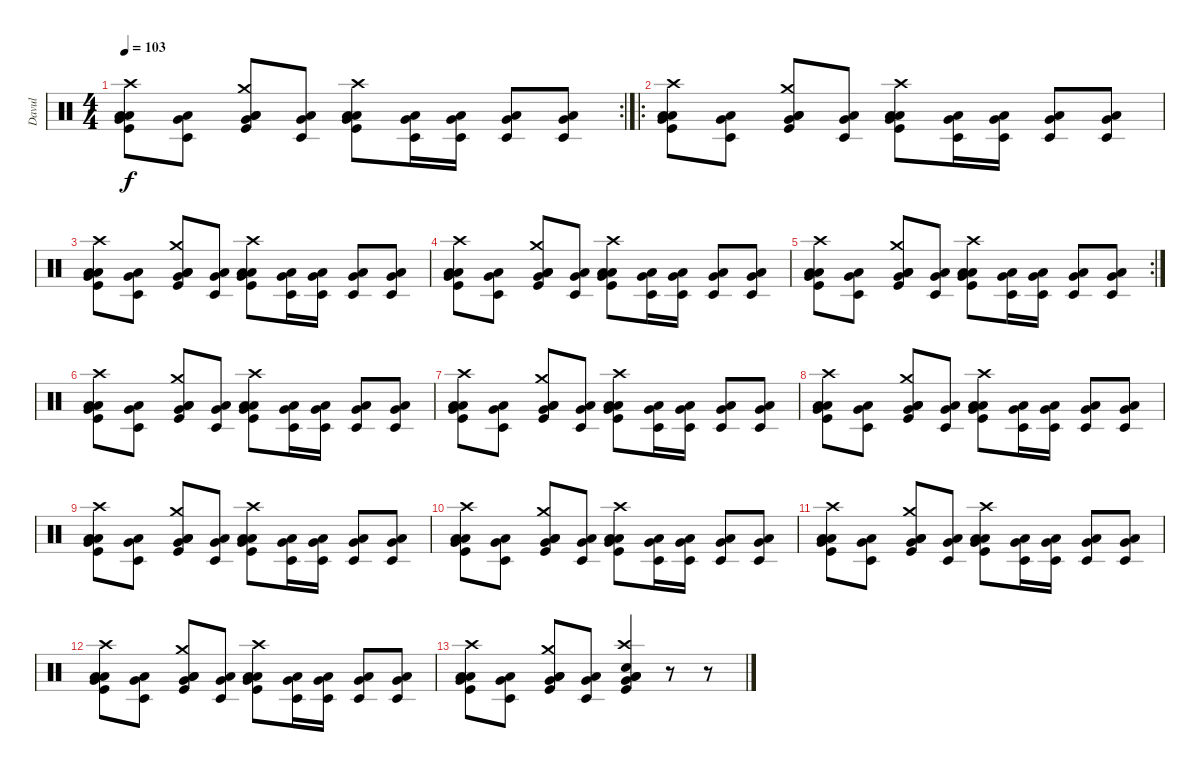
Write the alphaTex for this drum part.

\track ("Davul" "Davul") {instrument percussion}
\staff {score}
\articulation defaults
\rc 2
\ts (4 4)
\tempo 103
\clef neutral
\ks c
("Kick (hit)" "Low Tom (hit)" "Low Floor Tom (hit)" "Very Low Tom (hit)" "Crash high (hit)").8{dy f} ("Low Floor Tom (hit)" "Timbale low (hit)" "Very Low Tom (hit)").8 ("Kick (hit)" "Low Tom (hit)" "Low Floor Tom (hit)" "Very Low Tom (hit)" "Crash medium (hit)").8 ("Low Floor Tom (hit)" "Timbale low (hit)" "Very Low Tom (hit)").8 ("Kick (hit)" "Low Tom (hit)" "Low Floor Tom (hit)" "Very Low Tom (hit)" "Crash high (hit)").8 ("Low Floor Tom (hit)" "Timbale low (hit)" "Very Low Tom (hit)").16 ("Low Floor Tom (hit)" "Timbale low (hit)" "Very Low Tom (hit)").16 ("Low Floor Tom (hit)" "Timbale low (hit)" "Very Low Tom (hit)").8 ("Low Floor Tom (hit)" "Timbale low (hit)" "Very Low Tom (hit)").8 |
\ro
("Kick (hit)" "Low Tom (hit)" "Low Floor Tom (hit)" "Very Low Tom (hit)" "Crash high (hit)").8 ("Low Floor Tom (hit)" "Timbale low (hit)" "Very Low Tom (hit)").8 ("Kick (hit)" "Low Tom (hit)" "Low Floor Tom (hit)" "Very Low Tom (hit)" "Crash medium (hit)").8 ("Low Floor Tom (hit)" "Timbale low (hit)" "Very Low Tom (hit)").8 ("Kick (hit)" "Low Tom (hit)" "Low Floor Tom (hit)" "Very Low Tom (hit)" "Crash high (hit)").8 ("Low Floor Tom (hit)" "Timbale low (hit)" "Very Low Tom (hit)").16 ("Low Floor Tom (hit)" "Timbale low (hit)" "Very Low Tom (hit)").16 ("Low Floor Tom (hit)" "Timbale low (hit)" "Very Low Tom (hit)").8 ("Low Floor Tom (hit)" "Timbale low (hit)" "Very Low Tom (hit)").8 |
("Kick (hit)" "Low Tom (hit)" "Low Floor Tom (hit)" "Very Low Tom (hit)" "Crash high (hit)").8 ("Low Floor Tom (hit)" "Timbale low (hit)" "Very Low Tom (hit)").8 ("Kick (hit)" "Low Tom (hit)" "Low Floor Tom (hit)" "Very Low Tom (hit)" "Crash medium (hit)").8 ("Low Floor Tom (hit)" "Timbale low (hit)" "Very Low Tom (hit)").8 ("Kick (hit)" "Low Tom (hit)" "Low Floor Tom (hit)" "Very Low Tom (hit)" "Crash high (hit)").8 ("Low Floor Tom (hit)" "Timbale low (hit)" "Very Low Tom (hit)").16 ("Low Floor Tom (hit)" "Timbale low (hit)" "Very Low Tom (hit)").16 ("Low Floor Tom (hit)" "Timbale low (hit)" "Very Low Tom (hit)").8 ("Low Floor Tom (hit)" "Timbale low (hit)" "Very Low Tom (hit)").8 |
("Kick (hit)" "Low Tom (hit)" "Low Floor Tom (hit)" "Very Low Tom (hit)" "Crash high (hit)").8 ("Low Floor Tom (hit)" "Timbale low (hit)" "Very Low Tom (hit)").8 ("Kick (hit)" "Low Tom (hit)" "Low Floor Tom (hit)" "Very Low Tom (hit)" "Crash medium (hit)").8 ("Low Floor Tom (hit)" "Timbale low (hit)" "Very Low Tom (hit)").8 ("Kick (hit)" "Low Tom (hit)" "Low Floor Tom (hit)" "Very Low Tom (hit)" "Crash high (hit)").8 ("Low Floor Tom (hit)" "Timbale low (hit)" "Very Low Tom (hit)").16 ("Low Floor Tom (hit)" "Timbale low (hit)" "Very Low Tom (hit)").16 ("Low Floor Tom (hit)" "Timbale low (hit)" "Very Low Tom (hit)").8 ("Low Floor Tom (hit)" "Timbale low (hit)" "Very Low Tom (hit)").8 |
\rc 2
("Kick (hit)" "Low Tom (hit)" "Low Floor Tom (hit)" "Very Low Tom (hit)" "Crash high (hit)").8 ("Low Floor Tom (hit)" "Timbale low (hit)" "Very Low Tom (hit)").8 ("Kick (hit)" "Low Tom (hit)" "Low Floor Tom (hit)" "Very Low Tom (hit)" "Crash medium (hit)").8 ("Low Floor Tom (hit)" "Timbale low (hit)" "Very Low Tom (hit)").8 ("Kick (hit)" "Low Tom (hit)" "Low Floor Tom (hit)" "Very Low Tom (hit)" "Crash high (hit)").8 ("Low Floor Tom (hit)" "Timbale low (hit)" "Very Low Tom (hit)").16 ("Low Floor Tom (hit)" "Timbale low (hit)" "Very Low Tom (hit)").16 ("Low Floor Tom (hit)" "Timbale low (hit)" "Very Low Tom (hit)").8 ("Low Floor Tom (hit)" "Timbale low (hit)" "Very Low Tom (hit)").8 |
("Kick (hit)" "Low Tom (hit)" "Low Floor Tom (hit)" "Very Low Tom (hit)" "Crash high (hit)").8 ("Low Floor Tom (hit)" "Timbale low (hit)" "Very Low Tom (hit)").8 ("Kick (hit)" "Low Tom (hit)" "Low Floor Tom (hit)" "Very Low Tom (hit)" "Crash medium (hit)").8 ("Low Floor Tom (hit)" "Timbale low (hit)" "Very Low Tom (hit)").8 ("Kick (hit)" "Low Tom (hit)" "Low Floor Tom (hit)" "Very Low Tom (hit)" "Crash high (hit)").8 ("Low Floor Tom (hit)" "Timbale low (hit)" "Very Low Tom (hit)").16 ("Low Floor Tom (hit)" "Timbale low (hit)" "Very Low Tom (hit)").16 ("Low Floor Tom (hit)" "Timbale low (hit)" "Very Low Tom (hit)").8 ("Low Floor Tom (hit)" "Timbale low (hit)" "Very Low Tom (hit)").8 |
("Kick (hit)" "Low Tom (hit)" "Low Floor Tom (hit)" "Very Low Tom (hit)" "Crash high (hit)").8 ("Low Floor Tom (hit)" "Timbale low (hit)" "Very Low Tom (hit)").8 ("Kick (hit)" "Low Tom (hit)" "Low Floor Tom (hit)" "Very Low Tom (hit)" "Crash medium (hit)").8 ("Low Floor Tom (hit)" "Timbale low (hit)" "Very Low Tom (hit)").8 ("Kick (hit)" "Low Tom (hit)" "Low Floor Tom (hit)" "Very Low Tom (hit)" "Crash high (hit)").8 ("Low Floor Tom (hit)" "Timbale low (hit)" "Very Low Tom (hit)").16 ("Low Floor Tom (hit)" "Timbale low (hit)" "Very Low Tom (hit)").16 ("Low Floor Tom (hit)" "Timbale low (hit)" "Very Low Tom (hit)").8 ("Low Floor Tom (hit)" "Timbale low (hit)" "Very Low Tom (hit)").8 |
("Kick (hit)" "Low Tom (hit)" "Low Floor Tom (hit)" "Very Low Tom (hit)" "Crash high (hit)").8 ("Low Floor Tom (hit)" "Timbale low (hit)" "Very Low Tom (hit)").8 ("Kick (hit)" "Low Tom (hit)" "Low Floor Tom (hit)" "Very Low Tom (hit)" "Crash medium (hit)").8 ("Low Floor Tom (hit)" "Timbale low (hit)" "Very Low Tom (hit)").8 ("Kick (hit)" "Low Tom (hit)" "Low Floor Tom (hit)" "Very Low Tom (hit)" "Crash high (hit)").8 ("Low Floor Tom (hit)" "Timbale low (hit)" "Very Low Tom (hit)").16 ("Low Floor Tom (hit)" "Timbale low (hit)" "Very Low Tom (hit)").16 ("Low Floor Tom (hit)" "Timbale low (hit)" "Very Low Tom (hit)").8 ("Low Floor Tom (hit)" "Timbale low (hit)" "Very Low Tom (hit)").8 |
("Kick (hit)" "Low Tom (hit)" "Low Floor Tom (hit)" "Very Low Tom (hit)" "Crash high (hit)").8 ("Low Floor Tom (hit)" "Timbale low (hit)" "Very Low Tom (hit)").8 ("Kick (hit)" "Low Tom (hit)" "Low Floor Tom (hit)" "Very Low Tom (hit)" "Crash medium (hit)").8 ("Low Floor Tom (hit)" "Timbale low (hit)" "Very Low Tom (hit)").8 ("Kick (hit)" "Low Tom (hit)" "Low Floor Tom (hit)" "Very Low Tom (hit)" "Crash high (hit)").8 ("Low Floor Tom (hit)" "Timbale low (hit)" "Very Low Tom (hit)").16 ("Low Floor Tom (hit)" "Timbale low (hit)" "Very Low Tom (hit)").16 ("Low Floor Tom (hit)" "Timbale low (hit)" "Very Low Tom (hit)").8 ("Low Floor Tom (hit)" "Timbale low (hit)" "Very Low Tom (hit)").8 |
("Kick (hit)" "Low Tom (hit)" "Low Floor Tom (hit)" "Very Low Tom (hit)" "Crash high (hit)").8 ("Low Floor Tom (hit)" "Timbale low (hit)" "Very Low Tom (hit)").8 ("Kick (hit)" "Low Tom (hit)" "Low Floor Tom (hit)" "Very Low Tom (hit)" "Crash medium (hit)").8 ("Low Floor Tom (hit)" "Timbale low (hit)" "Very Low Tom (hit)").8 ("Kick (hit)" "Low Tom (hit)" "Low Floor Tom (hit)" "Very Low Tom (hit)" "Crash high (hit)").8 ("Low Floor Tom (hit)" "Timbale low (hit)" "Very Low Tom (hit)").16 ("Low Floor Tom (hit)" "Timbale low (hit)" "Very Low Tom (hit)").16 ("Low Floor Tom (hit)" "Timbale low (hit)" "Very Low Tom (hit)").8 ("Low Floor Tom (hit)" "Timbale low (hit)" "Very Low Tom (hit)").8 |
("Kick (hit)" "Low Tom (hit)" "Low Floor Tom (hit)" "Very Low Tom (hit)" "Crash high (hit)").8 ("Low Floor Tom (hit)" "Timbale low (hit)" "Very Low Tom (hit)").8 ("Kick (hit)" "Low Tom (hit)" "Low Floor Tom (hit)" "Very Low Tom (hit)" "Crash medium (hit)").8 ("Low Floor Tom (hit)" "Timbale low (hit)" "Very Low Tom (hit)").8 ("Kick (hit)" "Low Tom (hit)" "Low Floor Tom (hit)" "Very Low Tom (hit)" "Crash high (hit)").8 ("Low Floor Tom (hit)" "Timbale low (hit)" "Very Low Tom (hit)").16 ("Low Floor Tom (hit)" "Timbale low (hit)" "Very Low Tom (hit)").16 ("Low Floor Tom (hit)" "Timbale low (hit)" "Very Low Tom (hit)").8 ("Low Floor Tom (hit)" "Timbale low (hit)" "Very Low Tom (hit)").8 |
("Kick (hit)" "Low Tom (hit)" "Low Floor Tom (hit)" "Very Low Tom (hit)" "Crash high (hit)").8 ("Low Floor Tom (hit)" "Timbale low (hit)" "Very Low Tom (hit)").8 ("Kick (hit)" "Low Tom (hit)" "Low Floor Tom (hit)" "Very Low Tom (hit)" "Crash medium (hit)").8 ("Low Floor Tom (hit)" "Timbale low (hit)" "Very Low Tom (hit)").8 ("Kick (hit)" "Low Tom (hit)" "Low Floor Tom (hit)" "Very Low Tom (hit)" "Crash high (hit)").8 ("Low Floor Tom (hit)" "Timbale low (hit)" "Very Low Tom (hit)").16 ("Low Floor Tom (hit)" "Timbale low (hit)" "Very Low Tom (hit)").16 ("Low Floor Tom (hit)" "Timbale low (hit)" "Very Low Tom (hit)").8 ("Low Floor Tom (hit)" "Timbale low (hit)" "Very Low Tom (hit)").8 |
("Kick (hit)" "Low Tom (hit)" "Low Floor Tom (hit)" "Very Low Tom (hit)" "Crash high (hit)").8 ("Low Floor Tom (hit)" "Timbale low (hit)" "Very Low Tom (hit)").8 ("Kick (hit)" "Low Tom (hit)" "Low Floor Tom (hit)" "Very Low Tom (hit)" "Crash medium (hit)").8 ("Low Floor Tom (hit)" "Timbale low (hit)" "Very Low Tom (hit)").8 ("Kick (hit)" "Low Tom (hit)" "Low Floor Tom (hit)" "Very Low Tom (hit)" "Crash high (hit)" "Electric Snare (hit)").4 r.8 r.8
